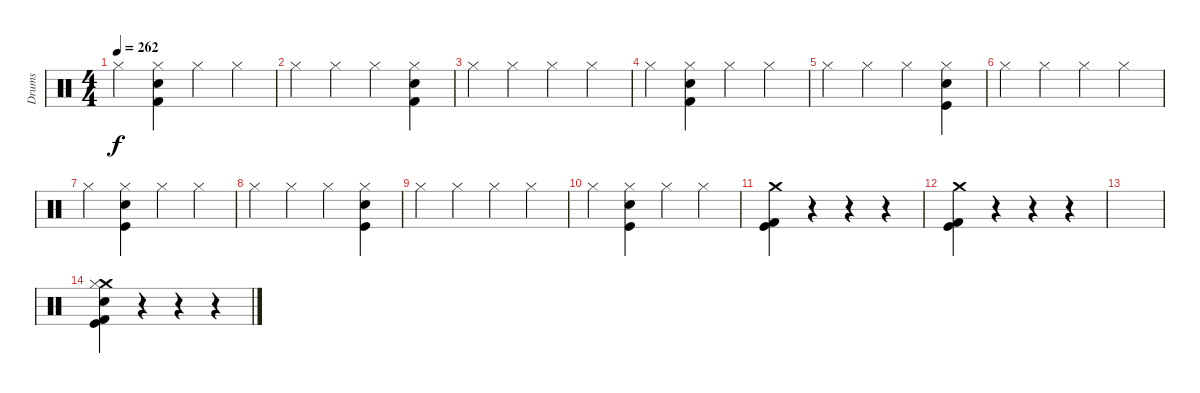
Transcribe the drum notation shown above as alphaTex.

\track ("Drums" "Drums") {instrument percussion}
\staff {score}
\articulation defaults
\ts (4 4)
\tempo 262
\clef neutral
\ks c "Hi-Hat (closed)".4{dy f}
("Electric Snare (hit)" "Hi-Hat (closed)" "Kick (hit) 2").4 "Hi-Hat (closed)".4 "Hi-Hat (closed)".4 |
"Hi-Hat (closed)".4 "Hi-Hat (closed)".4 "Hi-Hat (closed)".4 ("Electric Snare (hit)" "Hi-Hat (closed)" "Kick (hit) 2").4 |
"Hi-Hat (closed)".4 "Hi-Hat (closed)".4 "Hi-Hat (closed)".4 "Hi-Hat (closed)".4 |
"Hi-Hat (closed)".4 ("Electric Snare (hit)" "Hi-Hat (closed)" "Kick (hit) 2").4 "Hi-Hat (closed)".4 "Hi-Hat (closed)".4 |
"Hi-Hat (closed)".4 "Hi-Hat (closed)".4 "Hi-Hat (closed)".4 ("Electric Snare (hit)" "Hi-Hat (closed)" "Kick (hit)").4 |
"Hi-Hat (closed)".4 "Hi-Hat (closed)".4 "Hi-Hat (closed)".4 "Hi-Hat (closed)".4 |
"Hi-Hat (closed)".4 ("Electric Snare (hit)" "Hi-Hat (closed)" "Kick (hit)").4 "Hi-Hat (closed)".4 "Hi-Hat (closed)".4 |
"Hi-Hat (closed)".4 "Hi-Hat (closed)".4 "Hi-Hat (closed)".4 ("Electric Snare (hit)" "Hi-Hat (closed)" "Kick (hit)").4 |
"Hi-Hat (closed)".4 "Hi-Hat (closed)".4 "Hi-Hat (closed)".4 "Hi-Hat (closed)".4 |
"Hi-Hat (closed)".4 ("Electric Snare (hit)" "Hi-Hat (closed)" "Kick (hit)").4 "Hi-Hat (closed)".4 "Hi-Hat (closed)".4 |
("Crash medium (hit)" "Kick (hit)" "Kick (hit) 2").4 r.4 r.4 r.4 |
("Crash medium (hit)" "Kick (hit)" "Kick (hit) 2").4 r.4 r.4 r.4 |
|
("Crash medium (hit)" "Electric Snare (hit)" "Hi-Hat (closed)" "Kick (hit)" "Kick (hit) 2").4 r.4 r.4 r.4
